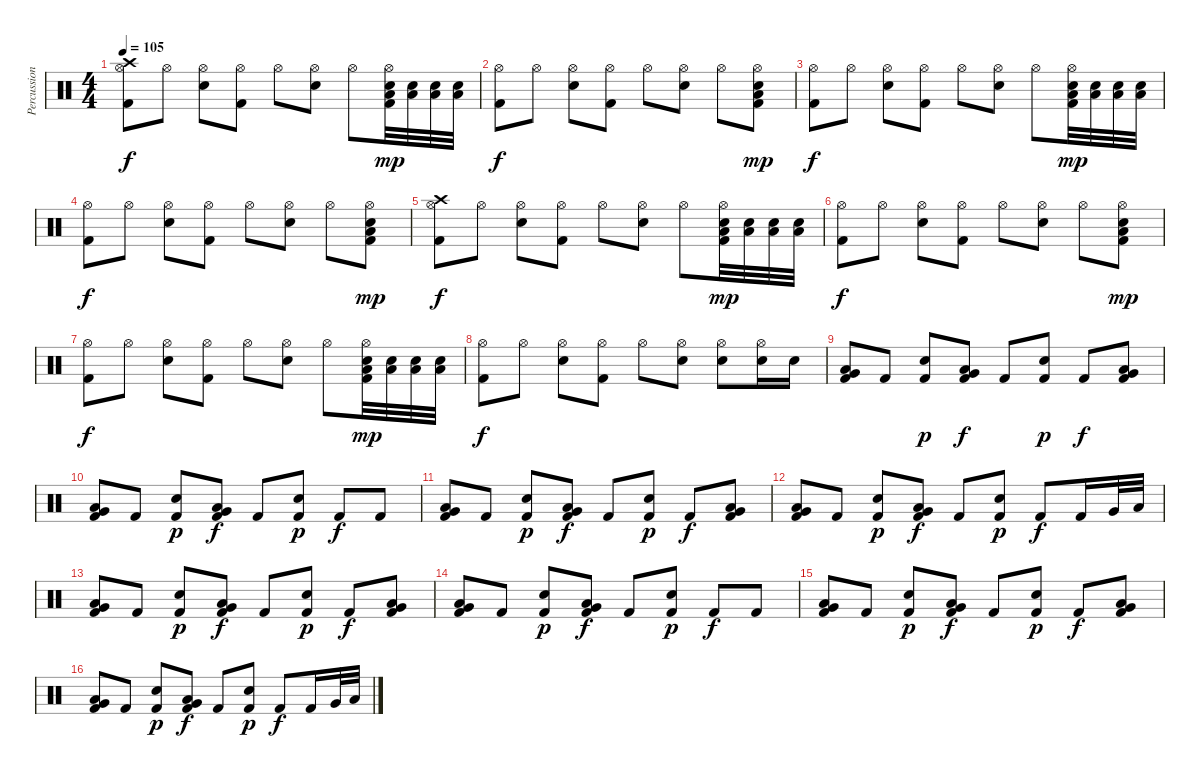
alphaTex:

\track ("Percussion" "Percussion") {instrument percussion}
\staff {score}
\articulation defaults
\ts (4 4)
\tempo 105
\clef neutral
\ks c
("Crash high (hit)" "Hi-Hat (open)" "Kick (hit) 2").8{dy f} "Hi-Hat (open)".8 ("Hi-Hat (open)" "Snare (hit) 2").8 ("Hi-Hat (open)" "Kick (hit) 2").8 "Hi-Hat (open)".8 ("Hi-Hat (open)" "Snare (hit) 2").8 "Hi-Hat (open)".8 ("Hi-Hat (open)" "Electric Snare (hit)" "Low Floor Tom (hit)" "Kick (hit) 2").32{dy mp} ("Electric Snare (hit)" "Low Floor Tom (hit)").32 ("Electric Snare (hit)" "Low Floor Tom (hit)").32 ("Electric Snare (hit)" "Low Floor Tom (hit)").32 |
("Hi-Hat (open)" "Kick (hit) 2").8{dy f} "Hi-Hat (open)".8 ("Hi-Hat (open)" "Snare (hit) 2").8 ("Hi-Hat (open)" "Kick (hit) 2").8 "Hi-Hat (open)".8 ("Hi-Hat (open)" "Snare (hit) 2").8 "Hi-Hat (open)".8 ("Hi-Hat (open)" "Electric Snare (hit)" "Low Floor Tom (hit)" "Kick (hit) 2").8{dy mp} |
("Hi-Hat (open)" "Kick (hit) 2").8{dy f} "Hi-Hat (open)".8 ("Hi-Hat (open)" "Snare (hit) 2").8 ("Hi-Hat (open)" "Kick (hit) 2").8 "Hi-Hat (open)".8 ("Hi-Hat (open)" "Snare (hit) 2").8 "Hi-Hat (open)".8 ("Hi-Hat (open)" "Electric Snare (hit)" "Low Floor Tom (hit)" "Kick (hit) 2").32{dy mp} ("Electric Snare (hit)" "Low Floor Tom (hit)").32 ("Electric Snare (hit)" "Low Floor Tom (hit)").32 ("Electric Snare (hit)" "Low Floor Tom (hit)").32 |
("Hi-Hat (open)" "Kick (hit) 2").8{dy f} "Hi-Hat (open)".8 ("Hi-Hat (open)" "Snare (hit) 2").8 ("Hi-Hat (open)" "Kick (hit) 2").8 "Hi-Hat (open)".8 ("Hi-Hat (open)" "Snare (hit) 2").8 "Hi-Hat (open)".8 ("Hi-Hat (open)" "Electric Snare (hit)" "Low Floor Tom (hit)" "Kick (hit) 2").8{dy mp} |
("Crash high (hit)" "Hi-Hat (open)" "Kick (hit) 2").8{dy f} "Hi-Hat (open)".8 ("Hi-Hat (open)" "Snare (hit) 2").8 ("Hi-Hat (open)" "Kick (hit) 2").8 "Hi-Hat (open)".8 ("Hi-Hat (open)" "Snare (hit) 2").8 "Hi-Hat (open)".8 ("Hi-Hat (open)" "Electric Snare (hit)" "Low Floor Tom (hit)" "Kick (hit) 2").32{dy mp} ("Electric Snare (hit)" "Low Floor Tom (hit)").32 ("Electric Snare (hit)" "Low Floor Tom (hit)").32 ("Electric Snare (hit)" "Low Floor Tom (hit)").32 |
("Hi-Hat (open)" "Kick (hit) 2").8{dy f} "Hi-Hat (open)".8 ("Hi-Hat (open)" "Snare (hit) 2").8 ("Hi-Hat (open)" "Kick (hit) 2").8 "Hi-Hat (open)".8 ("Hi-Hat (open)" "Snare (hit) 2").8 "Hi-Hat (open)".8 ("Hi-Hat (open)" "Electric Snare (hit)" "Low Floor Tom (hit)" "Kick (hit) 2").8{dy mp} |
("Hi-Hat (open)" "Kick (hit) 2").8{dy f} "Hi-Hat (open)".8 ("Hi-Hat (open)" "Snare (hit) 2").8 ("Hi-Hat (open)" "Kick (hit) 2").8 "Hi-Hat (open)".8 ("Hi-Hat (open)" "Snare (hit) 2").8 "Hi-Hat (open)".8 ("Hi-Hat (open)" "Electric Snare (hit)" "Low Floor Tom (hit)" "Kick (hit) 2").32{dy mp} ("Electric Snare (hit)" "Low Floor Tom (hit)").32 ("Electric Snare (hit)" "Low Floor Tom (hit)").32 ("Electric Snare (hit)" "Low Floor Tom (hit)").32 |
("Hi-Hat (open)" "Kick (hit) 2").8{dy f} "Hi-Hat (open)".8 ("Hi-Hat (open)" "Snare (hit) 2").8 ("Hi-Hat (open)" "Kick (hit) 2").8 "Hi-Hat (open)".8 ("Hi-Hat (open)" "Snare (hit) 2").8 ("Hi-Hat (open)" "Snare (hit) 2").8 ("Hi-Hat (open)" "Snare (hit) 2").16 "Snare (hit) 2".16 |
("Very Low Tom (hit)" "Low Floor Tom (hit)" "Kick (hit) 2").8 "Kick (hit) 2".8 ("Snare (hit) 2" "Kick (hit) 2").8{dy p} ("Very Low Tom (hit)" "Low Floor Tom (hit)" "Kick (hit) 2").8{dy f} "Kick (hit) 2".8 ("Snare (hit) 2" "Kick (hit) 2").8{dy p} "Kick (hit) 2".8{dy f} ("Very Low Tom (hit)" "Low Floor Tom (hit)" "Kick (hit) 2").8 |
("Very Low Tom (hit)" "Low Floor Tom (hit)" "Kick (hit) 2").8 "Kick (hit) 2".8 ("Snare (hit) 2" "Kick (hit) 2").8{dy p} ("Very Low Tom (hit)" "Low Floor Tom (hit)" "Kick (hit) 2").8{dy f} "Kick (hit) 2".8 ("Snare (hit) 2" "Kick (hit) 2").8{dy p} "Kick (hit) 2".8{dy f} "Kick (hit) 2".8 |
("Very Low Tom (hit)" "Low Floor Tom (hit)" "Kick (hit) 2").8 "Kick (hit) 2".8 ("Snare (hit) 2" "Kick (hit) 2").8{dy p} ("Very Low Tom (hit)" "Low Floor Tom (hit)" "Kick (hit) 2").8{dy f} "Kick (hit) 2".8 ("Snare (hit) 2" "Kick (hit) 2").8{dy p} "Kick (hit) 2".8{dy f} ("Very Low Tom (hit)" "Low Floor Tom (hit)" "Kick (hit) 2").8 |
("Very Low Tom (hit)" "Low Floor Tom (hit)" "Kick (hit) 2").8 "Kick (hit) 2".8 ("Snare (hit) 2" "Kick (hit) 2").8{dy p} ("Very Low Tom (hit)" "Low Floor Tom (hit)" "Kick (hit) 2").8{dy f} "Kick (hit) 2".8 ("Snare (hit) 2" "Kick (hit) 2").8{dy p} "Kick (hit) 2".8{dy f} "Kick (hit) 2".16 "Very Low Tom (hit)".32 "Low Floor Tom (hit)".32 |
("Very Low Tom (hit)" "Low Floor Tom (hit)" "Kick (hit) 2").8 "Kick (hit) 2".8 ("Snare (hit) 2" "Kick (hit) 2").8{dy p} ("Very Low Tom (hit)" "Low Floor Tom (hit)" "Kick (hit) 2").8{dy f} "Kick (hit) 2".8 ("Snare (hit) 2" "Kick (hit) 2").8{dy p} "Kick (hit) 2".8{dy f} ("Very Low Tom (hit)" "Low Floor Tom (hit)" "Kick (hit) 2").8 |
("Very Low Tom (hit)" "Low Floor Tom (hit)" "Kick (hit) 2").8 "Kick (hit) 2".8 ("Snare (hit) 2" "Kick (hit) 2").8{dy p} ("Very Low Tom (hit)" "Low Floor Tom (hit)" "Kick (hit) 2").8{dy f} "Kick (hit) 2".8 ("Snare (hit) 2" "Kick (hit) 2").8{dy p} "Kick (hit) 2".8{dy f} "Kick (hit) 2".8 |
("Very Low Tom (hit)" "Low Floor Tom (hit)" "Kick (hit) 2").8 "Kick (hit) 2".8 ("Snare (hit) 2" "Kick (hit) 2").8{dy p} ("Very Low Tom (hit)" "Low Floor Tom (hit)" "Kick (hit) 2").8{dy f} "Kick (hit) 2".8 ("Snare (hit) 2" "Kick (hit) 2").8{dy p} "Kick (hit) 2".8{dy f} ("Very Low Tom (hit)" "Low Floor Tom (hit)" "Kick (hit) 2").8 |
("Very Low Tom (hit)" "Low Floor Tom (hit)" "Kick (hit) 2").8 "Kick (hit) 2".8 ("Snare (hit) 2" "Kick (hit) 2").8{dy p} ("Very Low Tom (hit)" "Low Floor Tom (hit)" "Kick (hit) 2").8{dy f} "Kick (hit) 2".8 ("Snare (hit) 2" "Kick (hit) 2").8{dy p} "Kick (hit) 2".8{dy f} "Kick (hit) 2".16 "Very Low Tom (hit)".32 "Low Floor Tom (hit)".32
